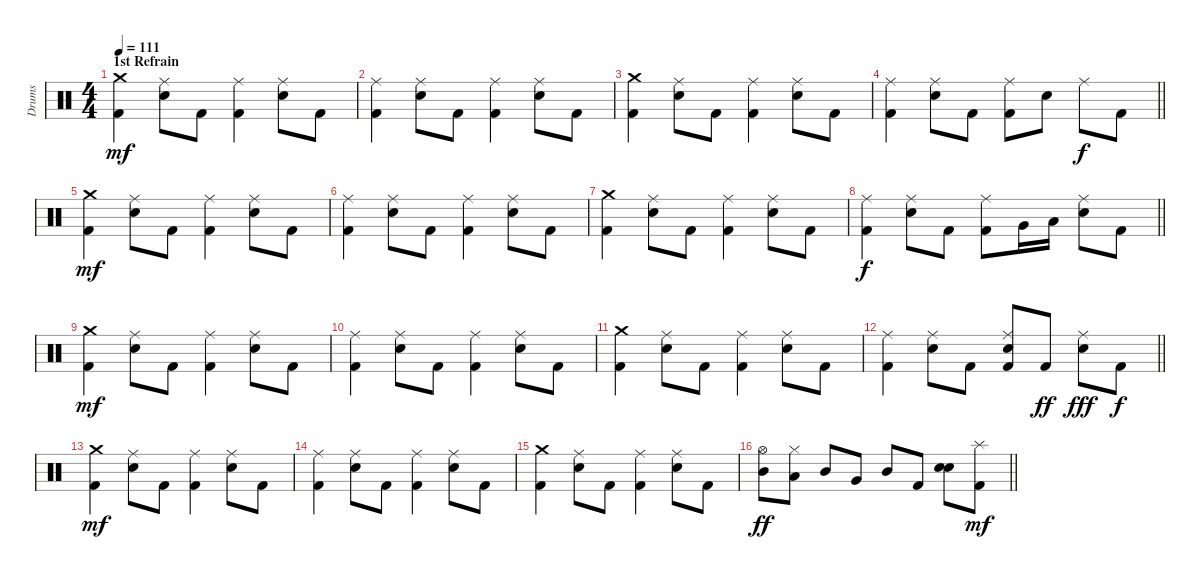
\track ("Drums" "Drums") {instrument percussion}
\staff {score}
\articulation defaults
\ts (4 4)
\section ("" "1st Refrain")
\tempo 111
\clef neutral
\ks c
("Crash medium (hit)" "Kick (hit) 2").4{dy mf} ("Ride (middle)" "Electric Snare (hit)").8 "Kick (hit) 2".8 ("Ride (middle)" "Kick (hit) 2").4 ("Ride (middle)" "Electric Snare (hit)").8 "Kick (hit) 2".8 |
("Ride (middle)" "Kick (hit) 2").4 ("Ride (middle)" "Electric Snare (hit)").8 "Kick (hit) 2".8 ("Ride (middle)" "Kick (hit) 2").4 ("Ride (middle)" "Electric Snare (hit)").8 "Kick (hit) 2".8 |
("Crash medium (hit)" "Kick (hit) 2").4 ("Ride (middle)" "Electric Snare (hit)").8 "Kick (hit) 2".8 ("Ride (middle)" "Kick (hit) 2").4 ("Ride (middle)" "Electric Snare (hit)").8 "Kick (hit) 2".8 |
\barLineRight lightlight
("Ride (middle)" "Kick (hit) 2").4 ("Ride (middle)" "Electric Snare (hit)").8 "Kick (hit) 2".8 ("Ride (middle)" "Kick (hit) 2").8 "Electric Snare (hit)".8 "Ride (middle)".8{dy f} "Kick (hit) 2".8 |
("Crash medium (hit)" "Kick (hit) 2").4{dy mf} ("Ride (middle)" "Electric Snare (hit)").8 "Kick (hit) 2".8 ("Ride (middle)" "Kick (hit) 2").4 ("Ride (middle)" "Electric Snare (hit)").8 "Kick (hit) 2".8 |
("Ride (middle)" "Kick (hit) 2").4 ("Ride (middle)" "Electric Snare (hit)").8 "Kick (hit) 2".8 ("Ride (middle)" "Kick (hit) 2").4 ("Ride (middle)" "Electric Snare (hit)").8 "Kick (hit) 2".8 |
("Crash medium (hit)" "Kick (hit) 2").4 ("Ride (middle)" "Electric Snare (hit)").8 "Kick (hit) 2".8 ("Ride (middle)" "Kick (hit) 2").4 ("Ride (middle)" "Electric Snare (hit)").8 "Kick (hit) 2".8 |
\barLineRight lightlight
("Ride (middle)" "Kick (hit) 2").4{dy f} ("Ride (middle)" "Electric Snare (hit)").8 "Kick (hit) 2".8 ("Ride (middle)" "Kick (hit) 2").8 "Very Low Tom (hit)".16 "Low Tom (hit)".16 ("Ride (middle)" "Electric Snare (hit)").8 "Kick (hit) 2".8 |
("Crash medium (hit)" "Kick (hit) 2").4{dy mf} ("Ride (middle)" "Electric Snare (hit)").8 "Kick (hit) 2".8 ("Ride (middle)" "Kick (hit) 2").4 ("Ride (middle)" "Electric Snare (hit)").8 "Kick (hit) 2".8 |
("Ride (middle)" "Kick (hit) 2").4 ("Ride (middle)" "Electric Snare (hit)").8 "Kick (hit) 2".8 ("Ride (middle)" "Kick (hit) 2").4 ("Ride (middle)" "Electric Snare (hit)").8 "Kick (hit) 2".8 |
("Crash medium (hit)" "Kick (hit) 2").4 ("Ride (middle)" "Electric Snare (hit)").8 "Kick (hit) 2".8 ("Ride (middle)" "Kick (hit) 2").4 ("Ride (middle)" "Electric Snare (hit)").8 "Kick (hit) 2".8 |
\barLineRight lightlight
("Ride (middle)" "Kick (hit) 2").4 ("Ride (middle)" "Electric Snare (hit)").8 "Kick (hit) 2".8 ("Ride (middle)" "Electric Snare (hit)" "Kick (hit) 2").8 "Kick (hit) 2".8{dy ff} ("Ride (middle)" "Electric Snare (hit)").8{dy fff} "Kick (hit) 2".8{dy f} |
("Crash medium (hit)" "Kick (hit) 2").4{dy mf} ("Ride (middle)" "Electric Snare (hit)").8 "Kick (hit) 2".8 ("Ride (middle)" "Kick (hit) 2").4 ("Ride (middle)" "Electric Snare (hit)").8 "Kick (hit) 2".8 |
("Ride (middle)" "Kick (hit) 2").4 ("Ride (middle)" "Electric Snare (hit)").8 "Kick (hit) 2".8 ("Ride (middle)" "Kick (hit) 2").4 ("Ride (middle)" "Electric Snare (hit)").8 "Kick (hit) 2".8 |
("Crash medium (hit)" "Kick (hit) 2").4 ("Ride (middle)" "Electric Snare (hit)").8 "Kick (hit) 2".8 ("Ride (middle)" "Kick (hit) 2").4 ("Ride (middle)" "Electric Snare (hit)").8 "Kick (hit) 2".8 |
\barLineRight lightlight
("Hi-Hat (open)" "Mid Tom (hit)").8{dy ff} ("Hi-Hat (closed)" "Low Tom (hit)").8 "Mid Tom (hit)".8 "Very Low Tom (hit)".8 "Mid Tom (hit)".8 "Kick (hit) 2".8 ("Electric Snare (hit)" "Electric Snare (hit)").8{bd 60} ("Splash (hit)" "Kick (hit) 2").8{dy mf}
